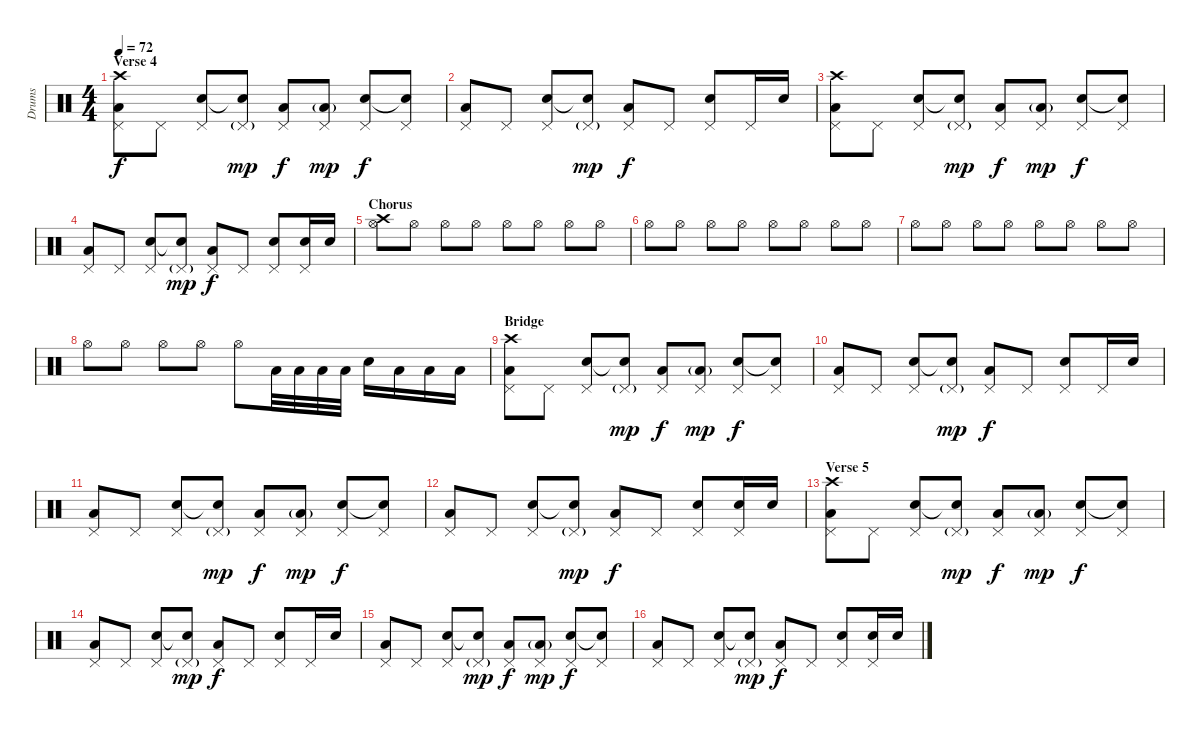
\track ("Drums" "Drums") {instrument percussion}
\staff {score}
\articulation defaults
\ts (4 4)
\section ("" "Verse 4")
\tempo 72
\clef neutral
\ks c
("Crash high (hit)" "Pedal Hi-Hat (hit)" "Low Floor Tom (hit)").8{dy f} "Pedal Hi-Hat (hit)".8 ("Pedal Hi-Hat (hit)" "Electric Snare (hit)").8 ("Pedal Hi-Hat (hit)"{g} "Electric Snare (hit)"{t}).8{dy mp} ("Pedal Hi-Hat (hit)" "Low Floor Tom (hit)").8{dy f} ("Pedal Hi-Hat (hit)" "Low Floor Tom (hit)"{g}).8{dy mp} ("Pedal Hi-Hat (hit)" "Electric Snare (hit)").8{dy f} ("Pedal Hi-Hat (hit)" "Snare (hit)"{t}).8 |
("Pedal Hi-Hat (hit)" "Low Floor Tom (hit)").8 "Pedal Hi-Hat (hit)".8 ("Pedal Hi-Hat (hit)" "Electric Snare (hit)").8 ("Pedal Hi-Hat (hit)"{g} "Electric Snare (hit)"{t}).8{dy mp} ("Pedal Hi-Hat (hit)" "Low Floor Tom (hit)").8{dy f} "Pedal Hi-Hat (hit)".8 ("Pedal Hi-Hat (hit)" "Electric Snare (hit)").8 "Pedal Hi-Hat (hit)".16 "Electric Snare (hit)".16 |
("Crash high (hit)" "Pedal Hi-Hat (hit)" "Low Floor Tom (hit)").8 "Pedal Hi-Hat (hit)".8 ("Pedal Hi-Hat (hit)" "Electric Snare (hit)").8 ("Pedal Hi-Hat (hit)"{g} "Electric Snare (hit)"{t}).8{dy mp} ("Pedal Hi-Hat (hit)" "Low Floor Tom (hit)").8{dy f} ("Pedal Hi-Hat (hit)" "Low Floor Tom (hit)"{g}).8{dy mp} ("Pedal Hi-Hat (hit)" "Electric Snare (hit)").8{dy f} ("Pedal Hi-Hat (hit)" "Snare (hit)"{t}).8 |
("Pedal Hi-Hat (hit)" "Low Floor Tom (hit)").8 "Pedal Hi-Hat (hit)".8 ("Pedal Hi-Hat (hit)" "Electric Snare (hit)").8 ("Pedal Hi-Hat (hit)"{g} "Electric Snare (hit)"{t}).8{dy mp} ("Pedal Hi-Hat (hit)" "Low Floor Tom (hit)").8{dy f} "Pedal Hi-Hat (hit)".8 ("Pedal Hi-Hat (hit)" "Electric Snare (hit)").8 ("Pedal Hi-Hat (hit)" "Electric Snare (hit)").16 "Electric Snare (hit)".16 |
\section ("" "Chorus")
("Crash high (hit)" "Hi-Hat (open)").8 "Hi-Hat (open)".8 "Hi-Hat (open)".8 "Hi-Hat (open)".8 "Hi-Hat (open)".8 "Hi-Hat (open)".8 "Hi-Hat (open)".8 "Hi-Hat (open)".8 |
"Hi-Hat (open)".8 "Hi-Hat (open)".8 "Hi-Hat (open)".8 "Hi-Hat (open)".8 "Hi-Hat (open)".8 "Hi-Hat (open)".8 "Hi-Hat (open)".8 "Hi-Hat (open)".8 |
"Hi-Hat (open)".8 "Hi-Hat (open)".8 "Hi-Hat (open)".8 "Hi-Hat (open)".8 "Hi-Hat (open)".8 "Hi-Hat (open)".8 "Hi-Hat (open)".8 "Hi-Hat (open)".8 |
"Hi-Hat (open)".8 "Hi-Hat (open)".8 "Hi-Hat (open)".8 "Hi-Hat (open)".8 "Hi-Hat (open)".8 "Low Floor Tom (hit)".32 "Low Floor Tom (hit)".32 "Low Floor Tom (hit)".32 "Low Floor Tom (hit)".32 "Electric Snare (hit)".16 "Low Floor Tom (hit)".16 "Low Floor Tom (hit)".16 "Low Floor Tom (hit)".16 |
\section ("" "Bridge")
("Crash high (hit)" "Pedal Hi-Hat (hit)" "Low Floor Tom (hit)").8 "Pedal Hi-Hat (hit)".8 ("Pedal Hi-Hat (hit)" "Electric Snare (hit)").8 ("Pedal Hi-Hat (hit)"{g} "Electric Snare (hit)"{t}).8{dy mp} ("Pedal Hi-Hat (hit)" "Low Floor Tom (hit)").8{dy f} ("Pedal Hi-Hat (hit)" "Low Floor Tom (hit)"{g}).8{dy mp} ("Pedal Hi-Hat (hit)" "Electric Snare (hit)").8{dy f} ("Pedal Hi-Hat (hit)" "Snare (hit)"{t}).8 |
("Pedal Hi-Hat (hit)" "Low Floor Tom (hit)").8 "Pedal Hi-Hat (hit)".8 ("Pedal Hi-Hat (hit)" "Electric Snare (hit)").8 ("Pedal Hi-Hat (hit)"{g} "Electric Snare (hit)"{t}).8{dy mp} ("Pedal Hi-Hat (hit)" "Low Floor Tom (hit)").8{dy f} "Pedal Hi-Hat (hit)".8 ("Pedal Hi-Hat (hit)" "Electric Snare (hit)").8 "Pedal Hi-Hat (hit)".16 "Electric Snare (hit)".16 |
("Pedal Hi-Hat (hit)" "Low Floor Tom (hit)").8 "Pedal Hi-Hat (hit)".8 ("Pedal Hi-Hat (hit)" "Electric Snare (hit)").8 ("Pedal Hi-Hat (hit)"{g} "Electric Snare (hit)"{t}).8{dy mp} ("Pedal Hi-Hat (hit)" "Low Floor Tom (hit)").8{dy f} ("Pedal Hi-Hat (hit)" "Low Floor Tom (hit)"{g}).8{dy mp} ("Pedal Hi-Hat (hit)" "Electric Snare (hit)").8{dy f} ("Pedal Hi-Hat (hit)" "Snare (hit)"{t}).8 |
("Pedal Hi-Hat (hit)" "Low Floor Tom (hit)").8 "Pedal Hi-Hat (hit)".8 ("Pedal Hi-Hat (hit)" "Electric Snare (hit)").8 ("Pedal Hi-Hat (hit)"{g} "Electric Snare (hit)"{t}).8{dy mp} ("Pedal Hi-Hat (hit)" "Low Floor Tom (hit)").8{dy f} "Pedal Hi-Hat (hit)".8 ("Pedal Hi-Hat (hit)" "Electric Snare (hit)").8 ("Pedal Hi-Hat (hit)" "Electric Snare (hit)").16 "Electric Snare (hit)".16 |
\section ("" "Verse 5")
("Crash high (hit)" "Pedal Hi-Hat (hit)" "Low Floor Tom (hit)").8 "Pedal Hi-Hat (hit)".8 ("Pedal Hi-Hat (hit)" "Electric Snare (hit)").8 ("Pedal Hi-Hat (hit)"{g} "Electric Snare (hit)"{t}).8{dy mp} ("Pedal Hi-Hat (hit)" "Low Floor Tom (hit)").8{dy f} ("Pedal Hi-Hat (hit)" "Low Floor Tom (hit)"{g}).8{dy mp} ("Pedal Hi-Hat (hit)" "Electric Snare (hit)").8{dy f} ("Pedal Hi-Hat (hit)" "Snare (hit)"{t}).8 |
("Pedal Hi-Hat (hit)" "Low Floor Tom (hit)").8 "Pedal Hi-Hat (hit)".8 ("Pedal Hi-Hat (hit)" "Electric Snare (hit)").8 ("Pedal Hi-Hat (hit)"{g} "Electric Snare (hit)"{t}).8{dy mp} ("Pedal Hi-Hat (hit)" "Low Floor Tom (hit)").8{dy f} "Pedal Hi-Hat (hit)".8 ("Pedal Hi-Hat (hit)" "Electric Snare (hit)").8 "Pedal Hi-Hat (hit)".16 "Electric Snare (hit)".16 |
("Pedal Hi-Hat (hit)" "Low Floor Tom (hit)").8 "Pedal Hi-Hat (hit)".8 ("Pedal Hi-Hat (hit)" "Electric Snare (hit)").8 ("Pedal Hi-Hat (hit)"{g} "Electric Snare (hit)"{t}).8{dy mp} ("Pedal Hi-Hat (hit)" "Low Floor Tom (hit)").8{dy f} ("Pedal Hi-Hat (hit)" "Low Floor Tom (hit)"{g}).8{dy mp} ("Pedal Hi-Hat (hit)" "Electric Snare (hit)").8{dy f} ("Pedal Hi-Hat (hit)" "Snare (hit)"{t}).8 |
("Pedal Hi-Hat (hit)" "Low Floor Tom (hit)").8 "Pedal Hi-Hat (hit)".8 ("Pedal Hi-Hat (hit)" "Electric Snare (hit)").8 ("Pedal Hi-Hat (hit)"{g} "Electric Snare (hit)"{t}).8{dy mp} ("Pedal Hi-Hat (hit)" "Low Floor Tom (hit)").8{dy f} "Pedal Hi-Hat (hit)".8 ("Pedal Hi-Hat (hit)" "Electric Snare (hit)").8 ("Pedal Hi-Hat (hit)" "Electric Snare (hit)").16 "Electric Snare (hit)".16
